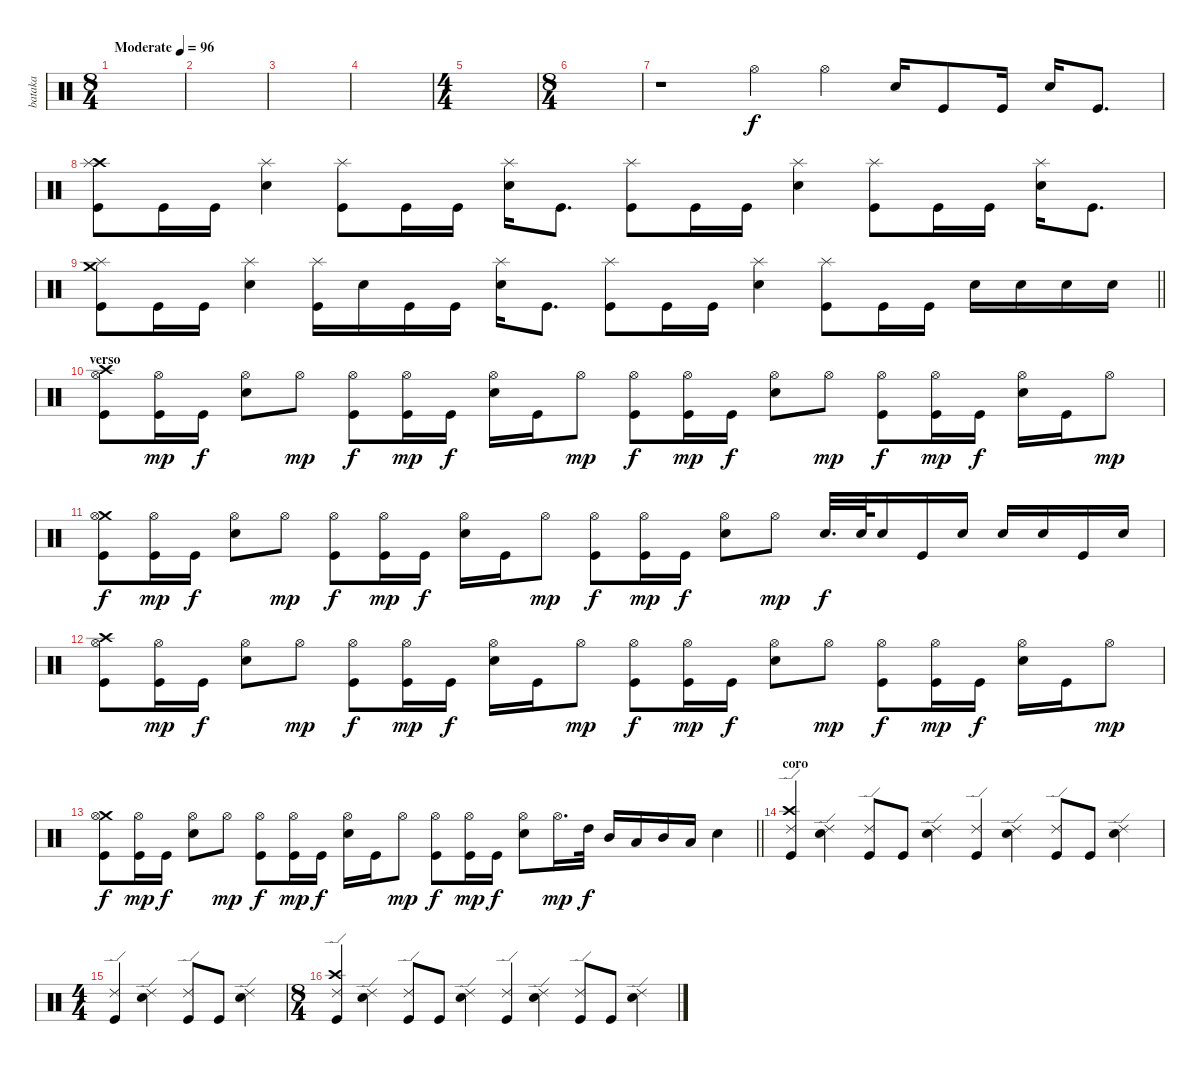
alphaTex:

\track ("bataka" "bataka") {instrument percussion}
\staff {score}
\articulation defaults
\ts (8 4)
\tempo (96 "Moderate")
\clef neutral
\ks c
|
|
|
|
\ts (4 4)
|
\ts (8 4)
|
r.1 "Hi-Hat (open)".4 "Hi-Hat (open)".4 "Snare (hit) 2".16 "Kick (hit)".8 "Kick (hit)".16 "Snare (hit) 2".16 "Kick (hit)".8{d} |
("Crash high (hit)" "Splash (hit)" "Kick (hit)").8 "Kick (hit)".16 "Kick (hit)".16 ("Splash (hit)" "Snare (hit) 2").4 ("Splash (hit)" "Kick (hit)").8 "Kick (hit)".16 "Kick (hit)".16 ("Splash (hit)" "Snare (hit) 2").16 "Kick (hit)".8{d} ("Splash (hit)" "Kick (hit)").8 "Kick (hit)".16 "Kick (hit)".16 ("Splash (hit)" "Snare (hit) 2").4 ("Splash (hit)" "Kick (hit)").8 "Kick (hit)".16 "Kick (hit)".16 ("Splash (hit)" "Snare (hit) 2").16 "Kick (hit)".8{d} |
\barLineRight lightlight
("Crash medium (hit)" "Splash (hit)" "Kick (hit)").8 "Kick (hit)".16 "Kick (hit)".16 ("Splash (hit)" "Snare (hit) 2").4 ("Splash (hit)" "Kick (hit)").16 "Snare (hit) 2".16 "Kick (hit)".16 "Kick (hit)".16 ("Splash (hit)" "Snare (hit) 2").16 "Kick (hit)".8{d} ("Splash (hit)" "Kick (hit)").8 "Kick (hit)".16 "Kick (hit)".16 ("Splash (hit)" "Snare (hit) 2").4 ("Splash (hit)" "Kick (hit)").8 "Kick (hit)".16 "Kick (hit)".16 "Snare (hit) 2".16 "Snare (hit) 2".16 "Snare (hit) 2".16 "Snare (hit) 2".16 |
\section ("" "verso")
("Crash high (hit)" "Hi-Hat (open)" "Kick (hit)").8 ("Hi-Hat (open)" "Kick (hit)").16{dy mp} "Kick (hit)".16{dy f} ("Hi-Hat (open)" "Snare (hit) 2").8 "Hi-Hat (open)".8{dy mp} ("Hi-Hat (open)" "Kick (hit)").8{dy f} ("Hi-Hat (open)" "Kick (hit)").16{dy mp} "Kick (hit)".16{dy f} ("Hi-Hat (open)" "Snare (hit) 2").16 "Kick (hit)".16 "Hi-Hat (open)".8{dy mp} ("Hi-Hat (open)" "Kick (hit)").8{dy f} ("Hi-Hat (open)" "Kick (hit)").16{dy mp} "Kick (hit)".16{dy f} ("Hi-Hat (open)" "Snare (hit) 2").8 "Hi-Hat (open)".8{dy mp} ("Hi-Hat (open)" "Kick (hit)").8{dy f} ("Hi-Hat (open)" "Kick (hit)").16{dy mp} "Kick (hit)".16{dy f} ("Hi-Hat (open)" "Snare (hit) 2").16 "Kick (hit)".16 "Hi-Hat (open)".8{dy mp} |
("Crash medium (hit)" "Hi-Hat (open)" "Kick (hit)").8{dy f} ("Hi-Hat (open)" "Kick (hit)").16{dy mp} "Kick (hit)".16{dy f} ("Hi-Hat (open)" "Snare (hit) 2").8 "Hi-Hat (open)".8{dy mp} ("Hi-Hat (open)" "Kick (hit)").8{dy f} ("Hi-Hat (open)" "Kick (hit)").16{dy mp} "Kick (hit)".16{dy f} ("Hi-Hat (open)" "Snare (hit) 2").16 "Kick (hit)".16 "Hi-Hat (open)".8{dy mp} ("Hi-Hat (open)" "Kick (hit)").8{dy f} ("Hi-Hat (open)" "Kick (hit)").16{dy mp} "Kick (hit)".16{dy f} ("Hi-Hat (open)" "Snare (hit) 2").8 "Hi-Hat (open)".8{dy mp} "Snare (hit) 2".32{d dy f} "Snare (hit) 2".64 "Snare (hit) 2".16 "Kick (hit)".16 "Snare (hit) 2".16 "Snare (hit) 2".16 "Snare (hit) 2".16 "Kick (hit)".16 "Snare (hit) 2".16 |
("Crash high (hit)" "Hi-Hat (open)" "Kick (hit)").8 ("Hi-Hat (open)" "Kick (hit)").16{dy mp} "Kick (hit)".16{dy f} ("Hi-Hat (open)" "Snare (hit) 2").8 "Hi-Hat (open)".8{dy mp} ("Hi-Hat (open)" "Kick (hit)").8{dy f} ("Hi-Hat (open)" "Kick (hit)").16{dy mp} "Kick (hit)".16{dy f} ("Hi-Hat (open)" "Snare (hit) 2").16 "Kick (hit)".16 "Hi-Hat (open)".8{dy mp} ("Hi-Hat (open)" "Kick (hit)").8{dy f} ("Hi-Hat (open)" "Kick (hit)").16{dy mp} "Kick (hit)".16{dy f} ("Hi-Hat (open)" "Snare (hit) 2").8 "Hi-Hat (open)".8{dy mp} ("Hi-Hat (open)" "Kick (hit)").8{dy f} ("Hi-Hat (open)" "Kick (hit)").16{dy mp} "Kick (hit)".16{dy f} ("Hi-Hat (open)" "Snare (hit) 2").16 "Kick (hit)".16 "Hi-Hat (open)".8{dy mp} |
\barLineRight lightlight
("Crash medium (hit)" "Hi-Hat (open)" "Kick (hit)").8{dy f} ("Hi-Hat (open)" "Kick (hit)").16{dy mp} "Kick (hit)".16{dy f} ("Hi-Hat (open)" "Snare (hit) 2").8 "Hi-Hat (open)".8{dy mp} ("Hi-Hat (open)" "Kick (hit)").8{dy f} ("Hi-Hat (open)" "Kick (hit)").16{dy mp} "Kick (hit)".16{dy f} ("Hi-Hat (open)" "Snare (hit) 2").16 "Kick (hit)".16 "Hi-Hat (open)".8{dy mp} ("Hi-Hat (open)" "Kick (hit)").8{dy f} ("Hi-Hat (open)" "Kick (hit)").16{dy mp} "Kick (hit)".16{dy f} ("Hi-Hat (open)" "Snare (hit) 2").8 "Hi-Hat (open)".16{d dy mp} "High Tom (hit)".32{dy f} "Mid Tom (hit)".16 "Low Tom (hit)".16 "Mid Tom (hit)".16 "Low Tom (hit)".16 "Snare (hit) 2".4 |
\section ("" "coro")
("Crash high (hit)" "Ride (edge) 2" "Kick (hit)").4 ("Ride (edge) 2" "Snare (hit) 2").4 ("Ride (edge) 2" "Kick (hit)").8 "Kick (hit)".8 ("Ride (edge) 2" "Snare (hit) 2").4 ("Ride (edge) 2" "Kick (hit)").4 ("Ride (edge) 2" "Snare (hit) 2").4 ("Ride (edge) 2" "Kick (hit)").8 "Kick (hit)".8 ("Ride (edge) 2" "Snare (hit) 2").4 |
\ts (4 4)
("Ride (edge) 2" "Kick (hit)").4 ("Ride (edge) 2" "Snare (hit) 2").4 ("Ride (edge) 2" "Kick (hit)").8 "Kick (hit)".8 ("Ride (edge) 2" "Snare (hit) 2").4 |
\ts (8 4)
("Crash high (hit)" "Ride (edge) 2" "Kick (hit)").4 ("Ride (edge) 2" "Snare (hit) 2").4 ("Ride (edge) 2" "Kick (hit)").8 "Kick (hit)".8 ("Ride (edge) 2" "Snare (hit) 2").4 ("Ride (edge) 2" "Kick (hit)").4 ("Ride (edge) 2" "Snare (hit) 2").4 ("Ride (edge) 2" "Kick (hit)").8 "Kick (hit)".8 ("Ride (edge) 2" "Snare (hit) 2").4
